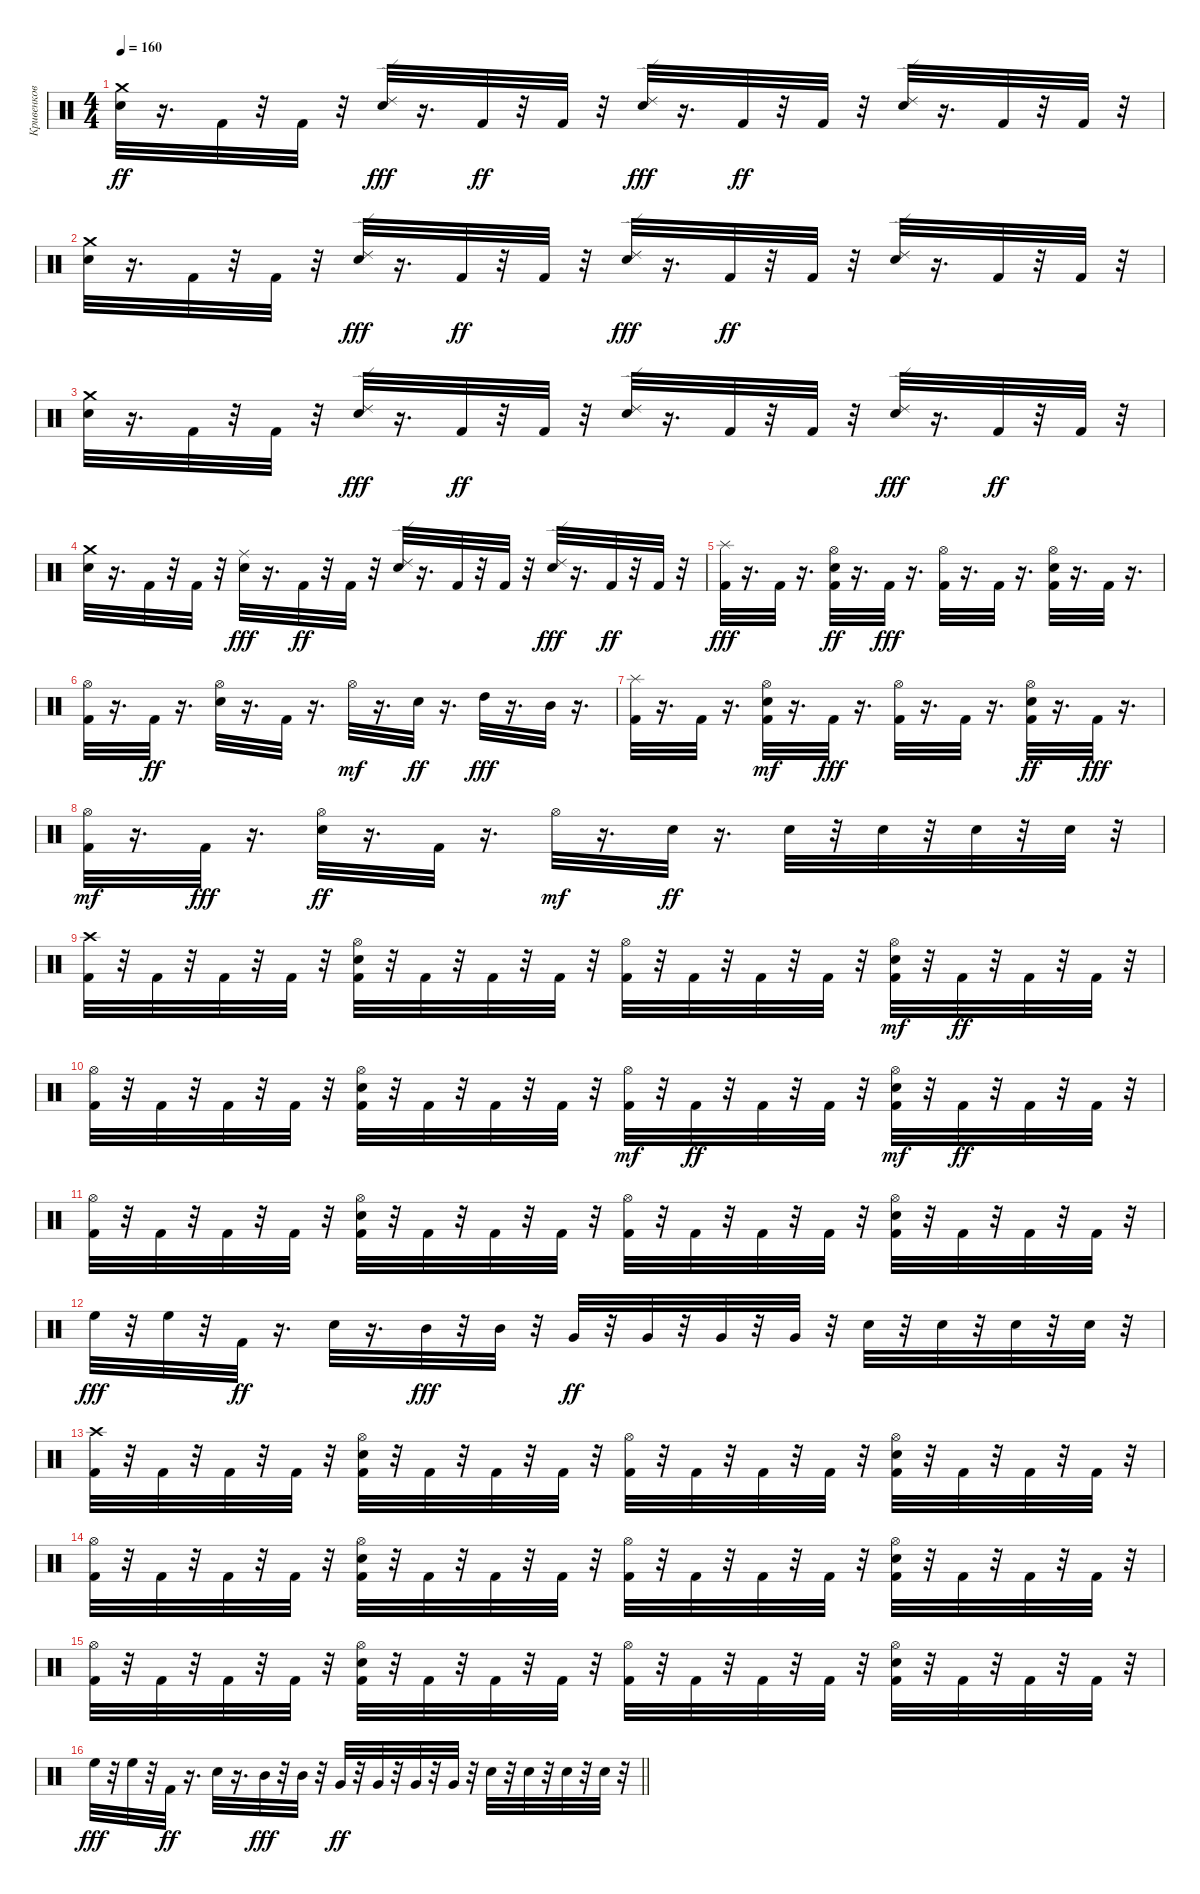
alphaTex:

\track ("Кривенков" "Кривенков") {instrument percussion}
\staff {score}
\articulation defaults
\ts (4 4)
\tempo 160
\clef neutral
\ks c
("Electric Snare (hit)" "Crash medium (hit)").32{dy ff} r.16{d} "Kick (hit) 2".32 r.32 "Kick (hit) 2".32 r.32 ("Electric Snare (hit)" "Ride (edge) 2").32{dy fff} r.16{d} "Kick (hit) 2".32{dy ff} r.32 "Kick (hit) 2".32 r.32 ("Electric Snare (hit)" "Ride (edge) 2").32{dy fff} r.16{d} "Kick (hit) 2".32{dy ff} r.32 "Kick (hit) 2".32 r.32 ("Ride (edge) 2" "Electric Snare (hit)").32 r.16{d} "Kick (hit) 2".32 r.32 "Kick (hit) 2".32 r.32 |
("Crash medium (hit)" "Electric Snare (hit)").32 r.16{d} "Kick (hit) 2".32 r.32 "Kick (hit) 2".32 r.32 ("Electric Snare (hit)" "Ride (edge) 2").32{dy fff} r.16{d} "Kick (hit) 2".32{dy ff} r.32 "Kick (hit) 2".32 r.32 ("Electric Snare (hit)" "Ride (edge) 2").32{dy fff} r.16{d} "Kick (hit) 2".32{dy ff} r.32 "Kick (hit) 2".32 r.32 ("Ride (edge) 2" "Electric Snare (hit)").32 r.16{d} "Kick (hit) 2".32 r.32 "Kick (hit) 2".32 r.32 |
("Crash medium (hit)" "Electric Snare (hit)").32 r.16{d} "Kick (hit) 2".32 r.32 "Kick (hit) 2".32 r.32 ("Electric Snare (hit)" "Ride (edge) 2").32{dy fff} r.16{d} "Kick (hit) 2".32{dy ff} r.32 "Kick (hit) 2".32 r.32 ("Ride (edge) 2" "Electric Snare (hit)").32 r.16{d} "Kick (hit) 2".32 r.32 "Kick (hit) 2".32 r.32 ("Electric Snare (hit)" "Ride (edge) 2").32{dy fff} r.16{d} "Kick (hit) 2".32{dy ff} r.32 "Kick (hit) 2".32 r.32 |
("Electric Snare (hit)" "Crash medium (hit)").32 r.16{d} "Kick (hit) 2".32 r.32 "Kick (hit) 2".32 r.32 ("Electric Snare (hit)" "Ride (middle)").32{dy fff} r.16{d} "Kick (hit) 2".32{dy ff} r.32 "Kick (hit) 2".32 r.32 ("Ride (edge) 2" "Electric Snare (hit)").32 r.16{d} "Kick (hit) 2".32 r.32 "Kick (hit) 2".32 r.32 ("Electric Snare (hit)" "Ride (edge) 2").32{dy fff} r.16{d} "Kick (hit) 2".32{dy ff} r.32 "Kick (hit) 2".32 r.32 |
("Kick (hit) 2" "Splash (hit)").32{dy fff} r.16{d} "Kick (hit) 2".32 r.16{d} ("Hi-Hat (open)" "Kick (hit) 2" "Electric Snare (hit)").32{dy ff} r.16{d} "Kick (hit) 2".32{dy fff} r.16{d} ("Hi-Hat (open)" "Kick (hit) 2").32 r.16{d} "Kick (hit) 2".32 r.16{d} ("Hi-Hat (open)" "Electric Snare (hit)" "Kick (hit) 2").32 r.16{d} "Kick (hit) 2".32 r.16{d} |
("Hi-Hat (open)" "Kick (hit) 2").32 r.16{d} "Kick (hit) 2".32{dy ff} r.16{d} ("Hi-Hat (open)" "Electric Snare (hit)").32 r.16{d} "Kick (hit) 2".32 r.16{d} "Hi-Hat (open)".32{dy mf} r.16{d} "Electric Snare (hit)".32{dy ff} r.16{d} "High Tom (hit)".32{dy fff} r.16{d} "Mid Tom (hit)".32 r.16{d} |
("Kick (hit) 2" "Splash (hit)").32 r.16{d} "Kick (hit) 2".32 r.16{d} ("Electric Snare (hit)" "Kick (hit) 2" "Hi-Hat (open)").32{dy mf} r.16{d} "Kick (hit) 2".32{dy fff} r.16{d} ("Hi-Hat (open)" "Kick (hit) 2").32 r.16{d} "Kick (hit) 2".32 r.16{d} ("Kick (hit) 2" "Hi-Hat (open)" "Electric Snare (hit)").32{dy ff} r.16{d} "Kick (hit) 2".32{dy fff} r.16{d} |
("Kick (hit) 2" "Hi-Hat (open)").32{dy mf} r.16{d} "Kick (hit) 2".32{dy fff} r.16{d} ("Hi-Hat (open)" "Electric Snare (hit)").32{dy ff} r.16{d} "Kick (hit) 2".32 r.16{d} "Hi-Hat (open)".32{dy mf} r.16{d} "Electric Snare (hit)".32{dy ff} r.16{d} "Electric Snare (hit)".32 r.32 "Electric Snare (hit)".32 r.32 "Electric Snare (hit)".32 r.32 "Electric Snare (hit)".32 r.32 |
("Crash high (hit)" "Kick (hit) 2").32 r.32 "Kick (hit) 2".32 r.32 "Kick (hit) 2".32 r.32 "Kick (hit) 2".32 r.32 ("Kick (hit) 2" "Hi-Hat (open)" "Electric Snare (hit)").32 r.32 "Kick (hit) 2".32 r.32 "Kick (hit) 2".32 r.32 "Kick (hit) 2".32 r.32 ("Hi-Hat (open)" "Kick (hit) 2").32 r.32 "Kick (hit) 2".32 r.32 "Kick (hit) 2".32 r.32 "Kick (hit) 2".32 r.32 ("Kick (hit) 2" "Electric Snare (hit)" "Hi-Hat (open)").32{dy mf} r.32 "Kick (hit) 2".32{dy ff} r.32 "Kick (hit) 2".32 r.32 "Kick (hit) 2".32 r.32 |
("Hi-Hat (open)" "Kick (hit) 2").32 r.32 "Kick (hit) 2".32 r.32 "Kick (hit) 2".32 r.32 "Kick (hit) 2".32 r.32 ("Kick (hit) 2" "Hi-Hat (open)" "Electric Snare (hit)").32 r.32 "Kick (hit) 2".32 r.32 "Kick (hit) 2".32 r.32 "Kick (hit) 2".32 r.32 ("Kick (hit) 2" "Hi-Hat (open)").32{dy mf} r.32 "Kick (hit) 2".32{dy ff} r.32 "Kick (hit) 2".32 r.32 "Kick (hit) 2".32 r.32 ("Kick (hit) 2" "Electric Snare (hit)" "Hi-Hat (open)").32{dy mf} r.32 "Kick (hit) 2".32{dy ff} r.32 "Kick (hit) 2".32 r.32 "Kick (hit) 2".32 r.32 |
("Hi-Hat (open)" "Kick (hit) 2").32 r.32 "Kick (hit) 2".32 r.32 "Kick (hit) 2".32 r.32 "Kick (hit) 2".32 r.32 ("Electric Snare (hit)" "Hi-Hat (open)" "Kick (hit) 2").32 r.32 "Kick (hit) 2".32 r.32 "Kick (hit) 2".32 r.32 "Kick (hit) 2".32 r.32 ("Hi-Hat (open)" "Kick (hit) 2").32 r.32 "Kick (hit) 2".32 r.32 "Kick (hit) 2".32 r.32 "Kick (hit) 2".32 r.32 ("Hi-Hat (open)" "Electric Snare (hit)" "Kick (hit) 2").32 r.32 "Kick (hit) 2".32 r.32 "Kick (hit) 2".32 r.32 "Kick (hit) 2".32 r.32 |
"High Floor Tom (hit)".32{dy fff} r.32 "High Floor Tom (hit)".32 r.32 "Kick (hit) 2".32{dy ff} r.16{d} "Electric Snare (hit)".32 r.16{d} "Mid Tom (hit)".32{dy fff} r.32 "Mid Tom (hit)".32 r.32 "Very Low Tom (hit)".32{dy ff} r.32 "Very Low Tom (hit)".32 r.32 "Very Low Tom (hit)".32 r.32 "Very Low Tom (hit)".32 r.32 "Electric Snare (hit)".32 r.32 "Electric Snare (hit)".32 r.32 "Electric Snare (hit)".32 r.32 "Electric Snare (hit)".32 r.32 |
("Crash high (hit)" "Kick (hit) 2").32 r.32 "Kick (hit) 2".32 r.32 "Kick (hit) 2".32 r.32 "Kick (hit) 2".32 r.32 ("Electric Snare (hit)" "Hi-Hat (open)" "Kick (hit) 2").32 r.32 "Kick (hit) 2".32 r.32 "Kick (hit) 2".32 r.32 "Kick (hit) 2".32 r.32 ("Hi-Hat (open)" "Kick (hit) 2").32 r.32 "Kick (hit) 2".32 r.32 "Kick (hit) 2".32 r.32 "Kick (hit) 2".32 r.32 ("Kick (hit) 2" "Hi-Hat (open)" "Electric Snare (hit)").32 r.32 "Kick (hit) 2".32 r.32 "Kick (hit) 2".32 r.32 "Kick (hit) 2".32 r.32 |
("Hi-Hat (open)" "Kick (hit) 2").32 r.32 "Kick (hit) 2".32 r.32 "Kick (hit) 2".32 r.32 "Kick (hit) 2".32 r.32 ("Hi-Hat (open)" "Kick (hit) 2" "Electric Snare (hit)").32 r.32 "Kick (hit) 2".32 r.32 "Kick (hit) 2".32 r.32 "Kick (hit) 2".32 r.32 ("Hi-Hat (open)" "Kick (hit) 2").32 r.32 "Kick (hit) 2".32 r.32 "Kick (hit) 2".32 r.32 "Kick (hit) 2".32 r.32 ("Hi-Hat (open)" "Electric Snare (hit)" "Kick (hit) 2").32 r.32 "Kick (hit) 2".32 r.32 "Kick (hit) 2".32 r.32 "Kick (hit) 2".32 r.32 |
("Hi-Hat (open)" "Kick (hit) 2").32 r.32 "Kick (hit) 2".32 r.32 "Kick (hit) 2".32 r.32 "Kick (hit) 2".32 r.32 ("Hi-Hat (open)" "Electric Snare (hit)" "Kick (hit) 2").32 r.32 "Kick (hit) 2".32 r.32 "Kick (hit) 2".32 r.32 "Kick (hit) 2".32 r.32 ("Hi-Hat (open)" "Kick (hit) 2").32 r.32 "Kick (hit) 2".32 r.32 "Kick (hit) 2".32 r.32 "Kick (hit) 2".32 r.32 ("Hi-Hat (open)" "Electric Snare (hit)" "Kick (hit) 2").32 r.32 "Kick (hit) 2".32 r.32 "Kick (hit) 2".32 r.32 "Kick (hit) 2".32 r.32 |
\barLineRight lightlight "High Floor Tom (hit)".32{dy fff}
r.32 "High Floor Tom (hit)".32 r.32 "Kick (hit) 2".32{dy ff} r.16{d} "Electric Snare (hit)".32 r.16{d} "Mid Tom (hit)".32{dy fff} r.32 "Mid Tom (hit)".32 r.32 "Very Low Tom (hit)".32{dy ff} r.32 "Very Low Tom (hit)".32 r.32 "Very Low Tom (hit)".32 r.32 "Very Low Tom (hit)".32 r.32 "Electric Snare (hit)".32 r.32 "Electric Snare (hit)".32 r.32 "Electric Snare (hit)".32 r.32 "Electric Snare (hit)".32 r.32
